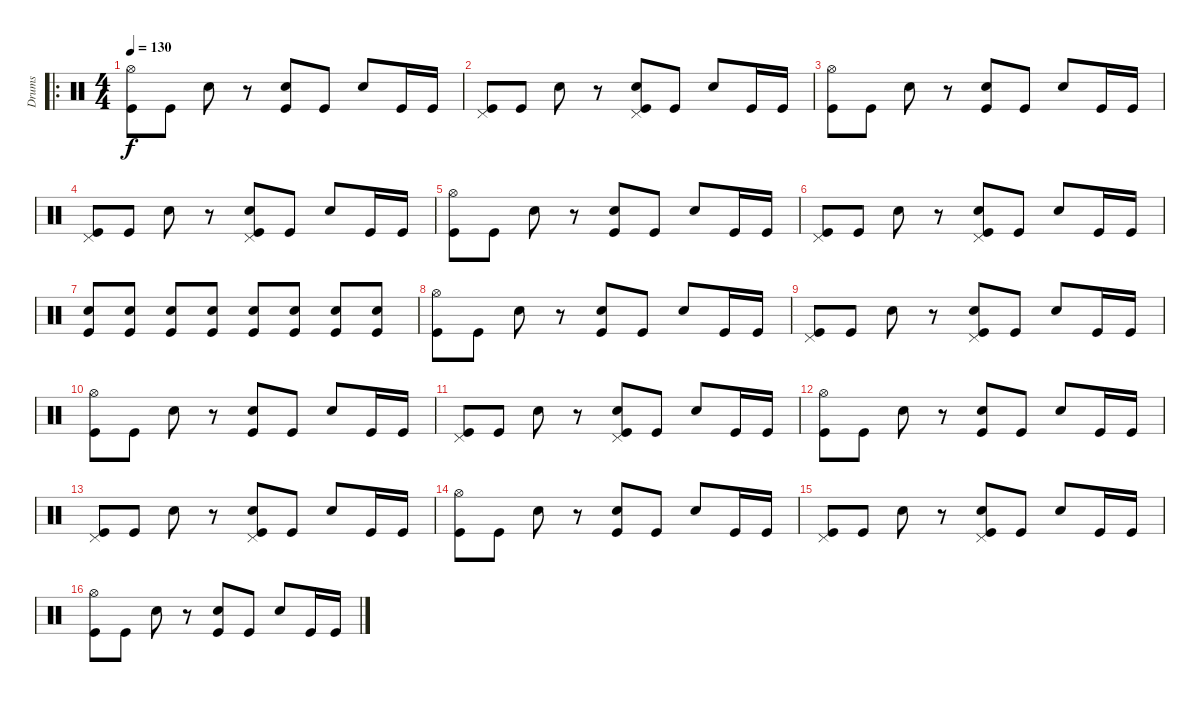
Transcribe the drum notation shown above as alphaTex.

\track ("Drums" "Drums") {instrument percussion}
\staff {score}
\articulation defaults
\ro
\ts (4 4)
\tempo 130
\clef neutral
\ks c
("Hi-Hat (open)" "Kick (hit)").8{dy f} "Kick (hit)".8 "Snare (hit) 2".8 r.8 ("Snare (hit) 2" "Kick (hit)").8 "Kick (hit)".8 "Snare (hit) 2".8 "Kick (hit)".16 "Kick (hit)".16 |
("Pedal Hi-Hat (hit)" "Kick (hit)").8 "Kick (hit)".8 "Snare (hit) 2".8 r.8 ("Pedal Hi-Hat (hit)" "Snare (hit) 2" "Kick (hit)").8 "Kick (hit)".8 "Snare (hit) 2".8 "Kick (hit)".16 "Kick (hit)".16 |
("Hi-Hat (open)" "Kick (hit)").8 "Kick (hit)".8 "Snare (hit) 2".8 r.8 ("Snare (hit) 2" "Kick (hit)").8 "Kick (hit)".8 "Snare (hit) 2".8 "Kick (hit)".16 "Kick (hit)".16 |
("Pedal Hi-Hat (hit)" "Kick (hit)").8 "Kick (hit)".8 "Snare (hit) 2".8 r.8 ("Pedal Hi-Hat (hit)" "Snare (hit) 2" "Kick (hit)").8 "Kick (hit)".8 "Snare (hit) 2".8 "Kick (hit)".16 "Kick (hit)".16 |
("Hi-Hat (open)" "Kick (hit)").8 "Kick (hit)".8 "Snare (hit) 2".8 r.8 ("Snare (hit) 2" "Kick (hit)").8 "Kick (hit)".8 "Snare (hit) 2".8 "Kick (hit)".16 "Kick (hit)".16 |
("Pedal Hi-Hat (hit)" "Kick (hit)").8 "Kick (hit)".8 "Snare (hit) 2".8 r.8 ("Pedal Hi-Hat (hit)" "Snare (hit) 2" "Kick (hit)").8 "Kick (hit)".8 "Snare (hit) 2".8 "Kick (hit)".16 "Kick (hit)".16 |
("Snare (hit) 2" "Kick (hit)").8 ("Snare (hit) 2" "Kick (hit)").8 ("Snare (hit) 2" "Kick (hit)").8 ("Snare (hit) 2" "Kick (hit)").8 ("Snare (hit) 2" "Kick (hit)").8 ("Snare (hit) 2" "Kick (hit)").8 ("Snare (hit) 2" "Kick (hit)").8 ("Snare (hit) 2" "Kick (hit)").8 |
("Hi-Hat (open)" "Kick (hit)").8 "Kick (hit)".8 "Snare (hit) 2".8 r.8 ("Snare (hit) 2" "Kick (hit)").8 "Kick (hit)".8 "Snare (hit) 2".8 "Kick (hit)".16 "Kick (hit)".16 |
("Pedal Hi-Hat (hit)" "Kick (hit)").8 "Kick (hit)".8 "Snare (hit) 2".8 r.8 ("Pedal Hi-Hat (hit)" "Snare (hit) 2" "Kick (hit)").8 "Kick (hit)".8 "Snare (hit) 2".8 "Kick (hit)".16 "Kick (hit)".16 |
("Hi-Hat (open)" "Kick (hit)").8 "Kick (hit)".8 "Snare (hit) 2".8 r.8 ("Snare (hit) 2" "Kick (hit)").8 "Kick (hit)".8 "Snare (hit) 2".8 "Kick (hit)".16 "Kick (hit)".16 |
("Pedal Hi-Hat (hit)" "Kick (hit)").8 "Kick (hit)".8 "Snare (hit) 2".8 r.8 ("Pedal Hi-Hat (hit)" "Snare (hit) 2" "Kick (hit)").8 "Kick (hit)".8 "Snare (hit) 2".8 "Kick (hit)".16 "Kick (hit)".16 |
("Hi-Hat (open)" "Kick (hit)").8 "Kick (hit)".8 "Snare (hit) 2".8 r.8 ("Snare (hit) 2" "Kick (hit)").8 "Kick (hit)".8 "Snare (hit) 2".8 "Kick (hit)".16 "Kick (hit)".16 |
("Pedal Hi-Hat (hit)" "Kick (hit)").8 "Kick (hit)".8 "Snare (hit) 2".8 r.8 ("Pedal Hi-Hat (hit)" "Snare (hit) 2" "Kick (hit)").8 "Kick (hit)".8 "Snare (hit) 2".8 "Kick (hit)".16 "Kick (hit)".16 |
("Hi-Hat (open)" "Kick (hit)").8 "Kick (hit)".8 "Snare (hit) 2".8 r.8 ("Snare (hit) 2" "Kick (hit)").8 "Kick (hit)".8 "Snare (hit) 2".8 "Kick (hit)".16 "Kick (hit)".16 |
("Pedal Hi-Hat (hit)" "Kick (hit)").8 "Kick (hit)".8 "Snare (hit) 2".8 r.8 ("Pedal Hi-Hat (hit)" "Snare (hit) 2" "Kick (hit)").8 "Kick (hit)".8 "Snare (hit) 2".8 "Kick (hit)".16 "Kick (hit)".16 |
("Hi-Hat (open)" "Kick (hit)").8 "Kick (hit)".8 "Snare (hit) 2".8 r.8 ("Snare (hit) 2" "Kick (hit)").8 "Kick (hit)".8 "Snare (hit) 2".8 "Kick (hit)".16 "Kick (hit)".16
